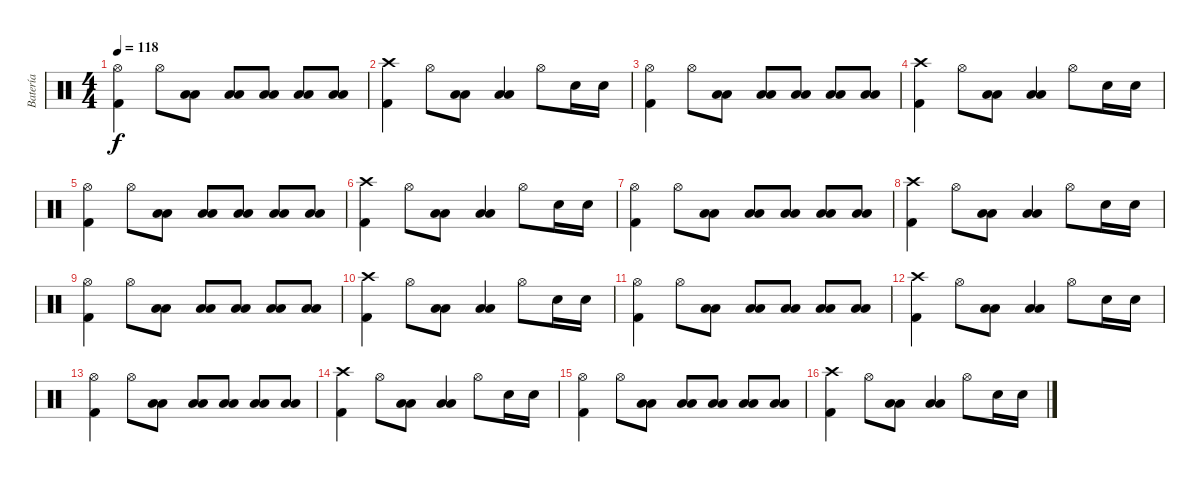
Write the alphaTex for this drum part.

\track ("Batería" "Batería") {instrument percussion}
\staff {score}
\articulation defaults
\ts (4 4)
\tempo 118
\clef neutral
\ks c
("Kick (hit) 2" "Hi-Hat (open)").4{dy f} "Hi-Hat (open)".8 ("Low Tom (hit)" "Low Floor Tom (hit)").8 ("Low Tom (hit)" "Low Floor Tom (hit)").8 ("Low Tom (hit)" "Low Floor Tom (hit)").8 ("Low Tom (hit)" "Low Floor Tom (hit)").8 ("Low Tom (hit)" "Low Floor Tom (hit)").8 |
("Kick (hit) 2" "Crash high (hit)").4 "Hi-Hat (open)".8 ("Low Tom (hit)" "Low Floor Tom (hit)").8 ("Low Tom (hit)" "Low Floor Tom (hit)").4 "Hi-Hat (open)".8 "Electric Snare (hit)".16 "Electric Snare (hit)".16 |
("Kick (hit) 2" "Hi-Hat (open)").4 "Hi-Hat (open)".8 ("Low Tom (hit)" "Low Floor Tom (hit)").8 ("Low Tom (hit)" "Low Floor Tom (hit)").8 ("Low Tom (hit)" "Low Floor Tom (hit)").8 ("Low Tom (hit)" "Low Floor Tom (hit)").8 ("Low Tom (hit)" "Low Floor Tom (hit)").8 |
("Kick (hit) 2" "Crash high (hit)").4 "Hi-Hat (open)".8 ("Low Tom (hit)" "Low Floor Tom (hit)").8 ("Low Tom (hit)" "Low Floor Tom (hit)").4 "Hi-Hat (open)".8 "Electric Snare (hit)".16 "Electric Snare (hit)".16 |
("Kick (hit) 2" "Hi-Hat (open)").4 "Hi-Hat (open)".8 ("Low Tom (hit)" "Low Floor Tom (hit)").8 ("Low Tom (hit)" "Low Floor Tom (hit)").8 ("Low Tom (hit)" "Low Floor Tom (hit)").8 ("Low Tom (hit)" "Low Floor Tom (hit)").8 ("Low Tom (hit)" "Low Floor Tom (hit)").8 |
("Kick (hit) 2" "Crash high (hit)").4 "Hi-Hat (open)".8 ("Low Tom (hit)" "Low Floor Tom (hit)").8 ("Low Tom (hit)" "Low Floor Tom (hit)").4 "Hi-Hat (open)".8 "Electric Snare (hit)".16 "Electric Snare (hit)".16 |
("Kick (hit) 2" "Hi-Hat (open)").4 "Hi-Hat (open)".8 ("Low Tom (hit)" "Low Floor Tom (hit)").8 ("Low Tom (hit)" "Low Floor Tom (hit)").8 ("Low Tom (hit)" "Low Floor Tom (hit)").8 ("Low Tom (hit)" "Low Floor Tom (hit)").8 ("Low Tom (hit)" "Low Floor Tom (hit)").8 |
("Kick (hit) 2" "Crash high (hit)").4 "Hi-Hat (open)".8 ("Low Tom (hit)" "Low Floor Tom (hit)").8 ("Low Tom (hit)" "Low Floor Tom (hit)").4 "Hi-Hat (open)".8 "Electric Snare (hit)".16 "Electric Snare (hit)".16 |
("Kick (hit) 2" "Hi-Hat (open)").4 "Hi-Hat (open)".8 ("Low Tom (hit)" "Low Floor Tom (hit)").8 ("Low Tom (hit)" "Low Floor Tom (hit)").8 ("Low Tom (hit)" "Low Floor Tom (hit)").8 ("Low Tom (hit)" "Low Floor Tom (hit)").8 ("Low Tom (hit)" "Low Floor Tom (hit)").8 |
("Kick (hit) 2" "Crash high (hit)").4 "Hi-Hat (open)".8 ("Low Tom (hit)" "Low Floor Tom (hit)").8 ("Low Tom (hit)" "Low Floor Tom (hit)").4 "Hi-Hat (open)".8 "Electric Snare (hit)".16 "Electric Snare (hit)".16 |
("Kick (hit) 2" "Hi-Hat (open)").4 "Hi-Hat (open)".8 ("Low Tom (hit)" "Low Floor Tom (hit)").8 ("Low Tom (hit)" "Low Floor Tom (hit)").8 ("Low Tom (hit)" "Low Floor Tom (hit)").8 ("Low Tom (hit)" "Low Floor Tom (hit)").8 ("Low Tom (hit)" "Low Floor Tom (hit)").8 |
("Kick (hit) 2" "Crash high (hit)").4 "Hi-Hat (open)".8 ("Low Tom (hit)" "Low Floor Tom (hit)").8 ("Low Tom (hit)" "Low Floor Tom (hit)").4 "Hi-Hat (open)".8 "Electric Snare (hit)".16 "Electric Snare (hit)".16 |
("Kick (hit) 2" "Hi-Hat (open)").4 "Hi-Hat (open)".8 ("Low Tom (hit)" "Low Floor Tom (hit)").8 ("Low Tom (hit)" "Low Floor Tom (hit)").8 ("Low Tom (hit)" "Low Floor Tom (hit)").8 ("Low Tom (hit)" "Low Floor Tom (hit)").8 ("Low Tom (hit)" "Low Floor Tom (hit)").8 |
("Kick (hit) 2" "Crash high (hit)").4 "Hi-Hat (open)".8 ("Low Tom (hit)" "Low Floor Tom (hit)").8 ("Low Tom (hit)" "Low Floor Tom (hit)").4 "Hi-Hat (open)".8 "Electric Snare (hit)".16 "Electric Snare (hit)".16 |
("Kick (hit) 2" "Hi-Hat (open)").4 "Hi-Hat (open)".8 ("Low Tom (hit)" "Low Floor Tom (hit)").8 ("Low Tom (hit)" "Low Floor Tom (hit)").8 ("Low Tom (hit)" "Low Floor Tom (hit)").8 ("Low Tom (hit)" "Low Floor Tom (hit)").8 ("Low Tom (hit)" "Low Floor Tom (hit)").8 |
("Kick (hit) 2" "Crash high (hit)").4 "Hi-Hat (open)".8 ("Low Tom (hit)" "Low Floor Tom (hit)").8 ("Low Tom (hit)" "Low Floor Tom (hit)").4 "Hi-Hat (open)".8 "Electric Snare (hit)".16 "Electric Snare (hit)".16
